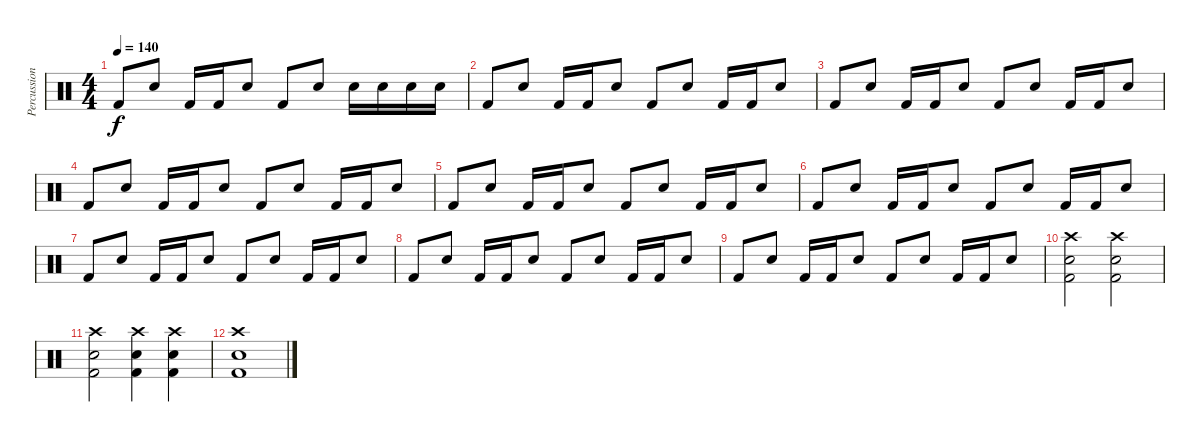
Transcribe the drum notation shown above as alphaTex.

\track ("Percussion" "Percussion") {instrument percussion}
\staff {score}
\articulation defaults
\ts (4 4)
\tempo 140
\clef neutral
\ks c "Kick (hit) 2".8{dy f} "Snare (hit) 2".8 "Kick (hit) 2".16 "Kick (hit) 2".16 "Snare (hit) 2".8 "Kick (hit) 2".8 "Snare (hit) 2".8 "Snare (hit) 2".16 "Snare (hit) 2".16 "Snare (hit) 2".16 "Snare (hit) 2".16
|
"Kick (hit) 2".8 "Snare (hit) 2".8 "Kick (hit) 2".16 "Kick (hit) 2".16 "Snare (hit) 2".8 "Kick (hit) 2".8 "Snare (hit) 2".8 "Kick (hit) 2".16 "Kick (hit) 2".16 "Snare (hit) 2".8 |
"Kick (hit) 2".8 "Snare (hit) 2".8 "Kick (hit) 2".16 "Kick (hit) 2".16 "Snare (hit) 2".8 "Kick (hit) 2".8 "Snare (hit) 2".8 "Kick (hit) 2".16 "Kick (hit) 2".16 "Snare (hit) 2".8 |
"Kick (hit) 2".8 "Snare (hit) 2".8 "Kick (hit) 2".16 "Kick (hit) 2".16 "Snare (hit) 2".8 "Kick (hit) 2".8 "Snare (hit) 2".8 "Kick (hit) 2".16 "Kick (hit) 2".16 "Snare (hit) 2".8 |
"Kick (hit) 2".8 "Snare (hit) 2".8 "Kick (hit) 2".16 "Kick (hit) 2".16 "Snare (hit) 2".8 "Kick (hit) 2".8 "Snare (hit) 2".8 "Kick (hit) 2".16 "Kick (hit) 2".16 "Snare (hit) 2".8 |
"Kick (hit) 2".8 "Snare (hit) 2".8 "Kick (hit) 2".16 "Kick (hit) 2".16 "Snare (hit) 2".8 "Kick (hit) 2".8 "Snare (hit) 2".8 "Kick (hit) 2".16 "Kick (hit) 2".16 "Snare (hit) 2".8 |
"Kick (hit) 2".8 "Snare (hit) 2".8 "Kick (hit) 2".16 "Kick (hit) 2".16 "Snare (hit) 2".8 "Kick (hit) 2".8 "Snare (hit) 2".8 "Kick (hit) 2".16 "Kick (hit) 2".16 "Snare (hit) 2".8 |
"Kick (hit) 2".8 "Snare (hit) 2".8 "Kick (hit) 2".16 "Kick (hit) 2".16 "Snare (hit) 2".8 "Kick (hit) 2".8 "Snare (hit) 2".8 "Kick (hit) 2".16 "Kick (hit) 2".16 "Snare (hit) 2".8 |
"Kick (hit) 2".8 "Snare (hit) 2".8 "Kick (hit) 2".16 "Kick (hit) 2".16 "Snare (hit) 2".8 "Kick (hit) 2".8 "Snare (hit) 2".8 "Kick (hit) 2".16 "Kick (hit) 2".16 "Snare (hit) 2".8 |
("Kick (hit) 2" "Crash high (hit)" "Snare (hit) 2").2 ("Kick (hit) 2" "Crash high (hit)" "Snare (hit) 2").2 |
("Crash high (hit)" "Kick (hit) 2" "Snare (hit) 2").2 ("Kick (hit) 2" "Crash high (hit)" "Snare (hit) 2").4 ("Kick (hit) 2" "Crash high (hit)" "Snare (hit) 2").4 |
("Kick (hit) 2" "Snare (hit) 2" "Crash high (hit)").1
